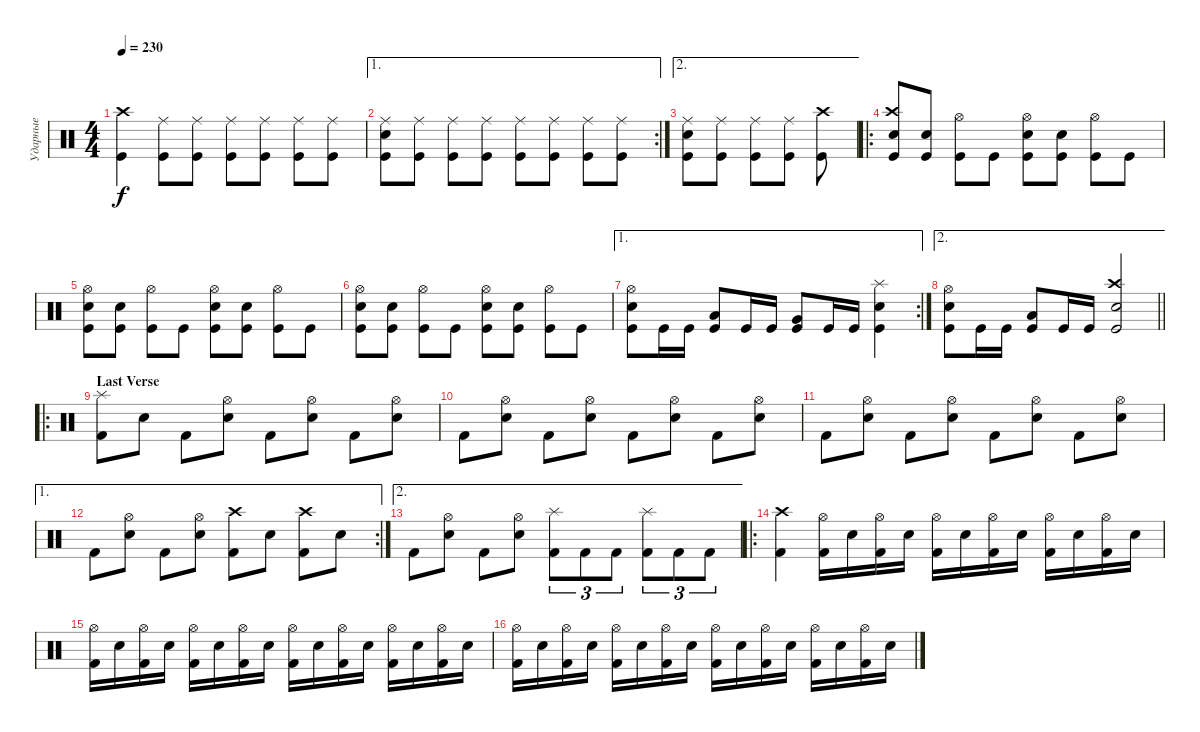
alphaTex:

\track ("Ударные" "Ударные") {instrument percussion}
\staff {score}
\articulation defaults
\ts (4 4)
\tempo 230
\clef neutral
\ks c
("Kick (hit)" "Crash high (hit)").4{dy f} ("Ride (middle)" "Kick (hit)").8 ("Ride (middle)" "Kick (hit)").8 ("Ride (middle)" "Kick (hit)").8 ("Ride (middle)" "Kick (hit)").8 ("Ride (middle)" "Kick (hit)").8 ("Ride (middle)" "Kick (hit)").8 |
\ae 1
\rc 2
("Ride (middle)" "Kick (hit)" "Snare (hit) 2").8 ("Ride (middle)" "Kick (hit)").8 ("Ride (middle)" "Kick (hit)").8 ("Ride (middle)" "Kick (hit)").8 ("Ride (middle)" "Kick (hit)").8 ("Ride (middle)" "Kick (hit)").8 ("Ride (middle)" "Kick (hit)").8 ("Ride (middle)" "Kick (hit)").8 |
\ae 2
("Ride (middle)" "Kick (hit)" "Snare (hit) 2").8 ("Ride (middle)" "Kick (hit)").8 ("Ride (middle)" "Kick (hit)").8 ("Ride (middle)" "Kick (hit)").8 ("Crash high (hit)" "Kick (hit)").8 |
\ro
("Kick (hit)" "Snare (hit) 2" "Crash high (hit)").8 ("Kick (hit)" "Snare (hit) 2").8 ("Kick (hit)" "Hi-Hat (open)").8 "Kick (hit)".8 ("Kick (hit)" "Hi-Hat (open)" "Snare (hit) 2").8 ("Kick (hit)" "Snare (hit) 2").8 ("Kick (hit)" "Hi-Hat (open)").8 "Kick (hit)".8 |
("Kick (hit)" "Snare (hit) 2" "Hi-Hat (open)").8 ("Kick (hit)" "Snare (hit) 2").8 ("Kick (hit)" "Hi-Hat (open)").8 "Kick (hit)".8 ("Kick (hit)" "Hi-Hat (open)" "Snare (hit) 2").8 ("Kick (hit)" "Snare (hit) 2").8 ("Kick (hit)" "Hi-Hat (open)").8 "Kick (hit)".8 |
("Kick (hit)" "Snare (hit) 2" "Hi-Hat (open)").8 ("Kick (hit)" "Snare (hit) 2").8 ("Kick (hit)" "Hi-Hat (open)").8 "Kick (hit)".8 ("Kick (hit)" "Hi-Hat (open)" "Snare (hit) 2").8 ("Kick (hit)" "Snare (hit) 2").8 ("Kick (hit)" "Hi-Hat (open)").8 "Kick (hit)".8 |
\ae 1
\rc 2
("Kick (hit)" "Snare (hit) 2" "Hi-Hat (open)").8 "Kick (hit)".16 "Kick (hit)".16 ("Kick (hit)" "Low Tom (hit)").8 "Kick (hit)".16 "Kick (hit)".16 ("Kick (hit)" "Very Low Tom (hit)").8 "Kick (hit)".16 "Kick (hit)".16 ("Kick (hit)" "Snare (hit) 2" "Splash (hit)").4 |
\ae 2
\barLineRight lightlight
("Kick (hit)" "Snare (hit) 2" "Hi-Hat (open)").8 "Kick (hit)".16 "Kick (hit)".16 ("Kick (hit)" "Low Tom (hit)").8 "Kick (hit)".16 "Kick (hit)".16 ("Kick (hit)" "Snare (hit) 2" "Crash high (hit)").2 |
\ro
\section ("" "Last Verse")
("Splash (hit)" "Kick (hit) 2").8 "Snare (hit) 2".8 "Kick (hit) 2".8 ("Hi-Hat (open)" "Snare (hit) 2").8 "Kick (hit) 2".8 ("Hi-Hat (open)" "Snare (hit) 2").8 "Kick (hit) 2".8 ("Hi-Hat (open)" "Snare (hit) 2").8 |
"Kick (hit) 2".8 ("Hi-Hat (open)" "Snare (hit) 2").8 "Kick (hit) 2".8 ("Hi-Hat (open)" "Snare (hit) 2").8 "Kick (hit) 2".8 ("Hi-Hat (open)" "Snare (hit) 2").8 "Kick (hit) 2".8 ("Hi-Hat (open)" "Snare (hit) 2").8 |
"Kick (hit) 2".8 ("Hi-Hat (open)" "Snare (hit) 2").8 "Kick (hit) 2".8 ("Hi-Hat (open)" "Snare (hit) 2").8 "Kick (hit) 2".8 ("Hi-Hat (open)" "Snare (hit) 2").8 "Kick (hit) 2".8 ("Hi-Hat (open)" "Snare (hit) 2").8 |
\ae 1
\rc 2 "Kick (hit) 2".8
("Hi-Hat (open)" "Snare (hit) 2").8 "Kick (hit) 2".8 ("Hi-Hat (open)" "Snare (hit) 2").8 ("Crash high (hit)" "Kick (hit) 2").8 "Snare (hit) 2".8 ("Crash high (hit)" "Kick (hit) 2").8 "Snare (hit) 2".8 |
\ae 2 "Kick (hit) 2".8
("Hi-Hat (open)" "Snare (hit) 2").8 "Kick (hit) 2".8 ("Hi-Hat (open)" "Snare (hit) 2").8 ("Splash (hit)" "Kick (hit) 2").8{tu (3 2)} "Kick (hit) 2".8{tu (3 2)} "Kick (hit) 2".8{tu (3 2)} ("Splash (hit)" "Kick (hit) 2").8{tu (3 2)} "Kick (hit) 2".8{tu (3 2)} "Kick (hit) 2".8{tu (3 2)} |
\ro
("Crash high (hit)" "Kick (hit) 2").4 ("Hi-Hat (open)" "Kick (hit) 2").16 "Snare (hit) 2".16 ("Hi-Hat (open)" "Kick (hit) 2").16 "Snare (hit) 2".16 ("Hi-Hat (open)" "Kick (hit) 2").16 "Snare (hit) 2".16 ("Hi-Hat (open)" "Kick (hit) 2").16 "Snare (hit) 2".16 ("Hi-Hat (open)" "Kick (hit) 2").16 "Snare (hit) 2".16 ("Hi-Hat (open)" "Kick (hit) 2").16 "Snare (hit) 2".16 |
("Hi-Hat (open)" "Kick (hit) 2").16 "Snare (hit) 2".16 ("Hi-Hat (open)" "Kick (hit) 2").16 "Snare (hit) 2".16 ("Hi-Hat (open)" "Kick (hit) 2").16 "Snare (hit) 2".16 ("Hi-Hat (open)" "Kick (hit) 2").16 "Snare (hit) 2".16 ("Hi-Hat (open)" "Kick (hit) 2").16 "Snare (hit) 2".16 ("Hi-Hat (open)" "Kick (hit) 2").16 "Snare (hit) 2".16 ("Hi-Hat (open)" "Kick (hit) 2").16 "Snare (hit) 2".16 ("Hi-Hat (open)" "Kick (hit) 2").16 "Snare (hit) 2".16 |
("Hi-Hat (open)" "Kick (hit) 2").16 "Snare (hit) 2".16 ("Hi-Hat (open)" "Kick (hit) 2").16 "Snare (hit) 2".16 ("Hi-Hat (open)" "Kick (hit) 2").16 "Snare (hit) 2".16 ("Hi-Hat (open)" "Kick (hit) 2").16 "Snare (hit) 2".16 ("Hi-Hat (open)" "Kick (hit) 2").16 "Snare (hit) 2".16 ("Hi-Hat (open)" "Kick (hit) 2").16 "Snare (hit) 2".16 ("Hi-Hat (open)" "Kick (hit) 2").16 "Snare (hit) 2".16 ("Hi-Hat (open)" "Kick (hit) 2").16 "Snare (hit) 2".16
